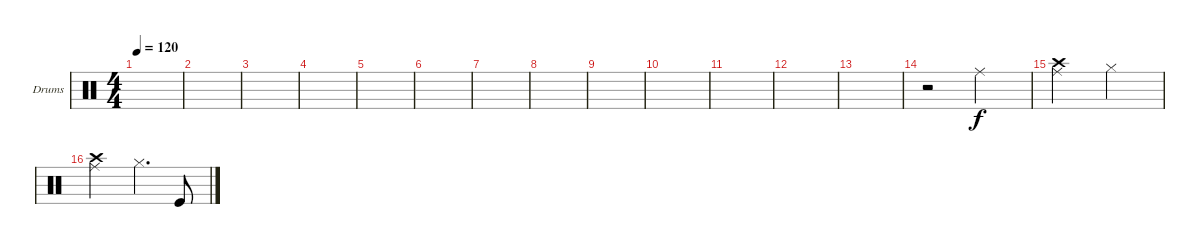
\defaultSystemsLayout 4
\bracketExtendMode groupsimilarinstruments
\firstSystemTrackNameOrientation horizontal
\otherSystemsTrackNameOrientation horizontal
\track ("Drums" "Drums") {instrument percussion}
\staff {score}
\articulation defaults
\ts (4 4)
\tempo 120
\clef neutral
\scale
0.333333
\ks c
|
\scale
0.333333 |
\scale
0.333333 |
\scale
0.333333 |
\scale
0.333333 |
\scale
0.333333 |
\scale
0.333333 |
\scale
0.333333 |
\scale
0.333333 |
\scale
0.333333 |
\scale
0.333333 |
\scale
0.333333 |
\scale
0.333333 |
\scale
0.333333 r.2 "Ride (middle)".2 |
\scale
0.333333 ("Crash high (hit)" "Ride (middle)").2 "Hi-Hat (closed)".2 |
\scale
0.333333 ("Crash high (hit)" "Ride (middle)").2 "Hi-Hat (closed)".4{d} "Kick (hit)".8
